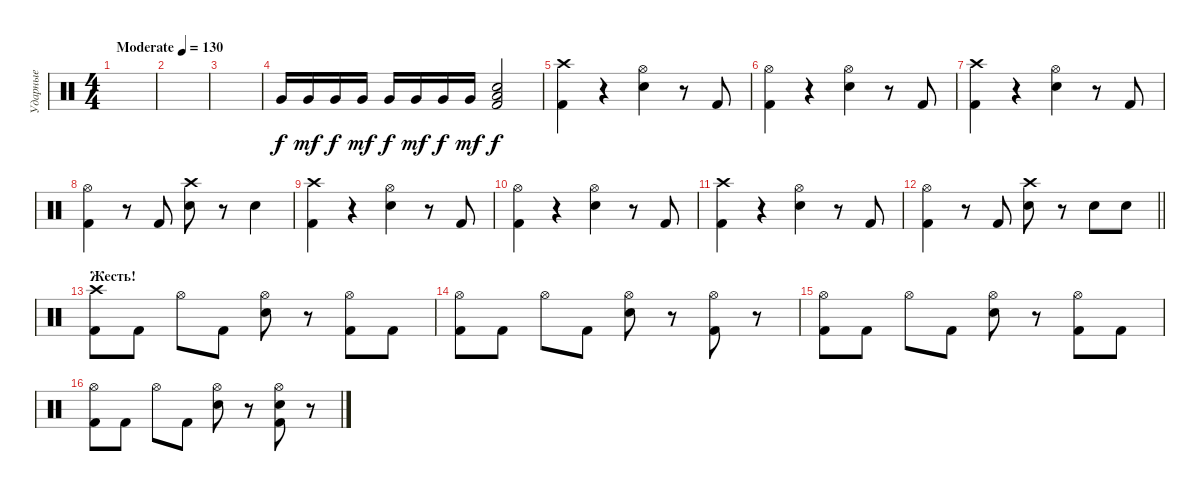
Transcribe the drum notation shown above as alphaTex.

\track ("Ударные" "Ударные") {instrument percussion}
\staff {score}
\articulation defaults
\ts (4 4)
\tempo (130 "Moderate")
\clef neutral
\ks c
|
|
|
"Very Low Tom (hit)".16 "Very Low Tom (hit)".16{dy mf} "Very Low Tom (hit)".16{dy f} "Very Low Tom (hit)".16{dy mf} "Very Low Tom (hit)".16{dy f} "Very Low Tom (hit)".16{dy mf} "Very Low Tom (hit)".16{dy f} "Very Low Tom (hit)".16{dy mf} ("Kick (hit) 2" "Electric Snare (hit)" "Low Floor Tom (hit)").2{dy f} |
("Kick (hit) 2" "Crash high (hit)").4 r.4 ("Hi-Hat (open)" "Electric Snare (hit)").4 r.8 "Kick (hit) 2".8 |
("Kick (hit) 2" "Hi-Hat (open)").4 r.4 ("Hi-Hat (open)" "Electric Snare (hit)").4 r.8 "Kick (hit) 2".8 |
("Kick (hit) 2" "Crash high (hit)").4 r.4 ("Hi-Hat (open)" "Electric Snare (hit)").4 r.8 "Kick (hit) 2".8 |
("Kick (hit) 2" "Hi-Hat (open)").4 r.8 "Kick (hit) 2".8 ("Electric Snare (hit)" "Crash high (hit)").8 r.8 "Electric Snare (hit)".4 |
("Kick (hit) 2" "Crash high (hit)").4 r.4 ("Hi-Hat (open)" "Electric Snare (hit)").4 r.8 "Kick (hit) 2".8 |
("Kick (hit) 2" "Hi-Hat (open)").4 r.4 ("Hi-Hat (open)" "Electric Snare (hit)").4 r.8 "Kick (hit) 2".8 |
("Kick (hit) 2" "Crash high (hit)").4 r.4 ("Hi-Hat (open)" "Electric Snare (hit)").4 r.8 "Kick (hit) 2".8 |
\barLineRight lightlight
("Kick (hit) 2" "Hi-Hat (open)").4 r.8 "Kick (hit) 2".8 ("Electric Snare (hit)" "Crash high (hit)").8 r.8 "Electric Snare (hit)".8 "Electric Snare (hit)".8 |
\section ("" "Жесть!")
("Kick (hit) 2" "Crash high (hit)").8 "Kick (hit) 2".8 "Hi-Hat (open)".8 "Kick (hit) 2".8 ("Electric Snare (hit)" "Hi-Hat (open)").8 r.8 ("Kick (hit) 2" "Hi-Hat (open)").8 "Kick (hit) 2".8 |
("Kick (hit) 2" "Hi-Hat (open)").8 "Kick (hit) 2".8 "Hi-Hat (open)".8 "Kick (hit) 2".8 ("Electric Snare (hit)" "Hi-Hat (open)").8 r.8 ("Kick (hit) 2" "Hi-Hat (open)").8 r.8 |
("Kick (hit) 2" "Hi-Hat (open)").8 "Kick (hit) 2".8 "Hi-Hat (open)".8 "Kick (hit) 2".8 ("Electric Snare (hit)" "Hi-Hat (open)").8 r.8 ("Kick (hit) 2" "Hi-Hat (open)").8 "Kick (hit) 2".8 |
("Kick (hit) 2" "Hi-Hat (open)").8 "Kick (hit) 2".8 "Hi-Hat (open)".8 "Kick (hit) 2".8 ("Electric Snare (hit)" "Hi-Hat (open)").8 r.8 ("Kick (hit) 2" "Electric Snare (hit)" "Hi-Hat (open)").8 r.8
